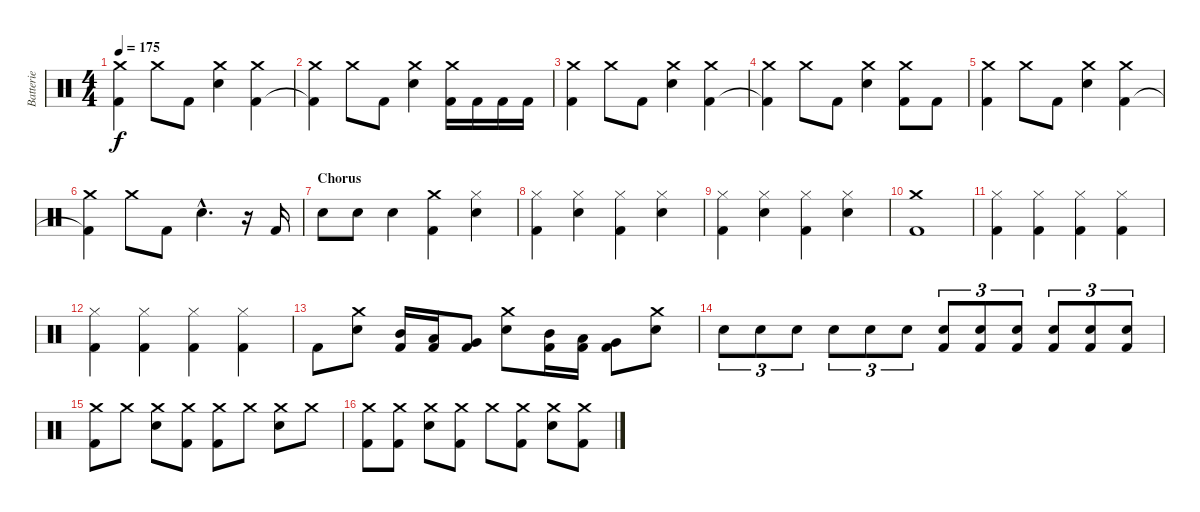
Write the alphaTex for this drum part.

\track ("Batterie" "Batterie") {instrument percussion}
\staff {score}
\articulation defaults
\ts (4 4)
\tempo 175
\clef neutral
\ks c
("Crash medium (hit)" "Kick (hit) 2").4{dy f} "Crash medium (hit)".8 "Kick (hit) 2".8 ("Crash medium (hit)" "Electric Snare (hit)").4 ("Crash medium (hit)" "Kick (hit) 2").4 |
("Crash medium (hit)" "Kick (hit) 2"{t}).4 "Crash medium (hit)".8 "Kick (hit) 2".8 ("Crash medium (hit)" "Electric Snare (hit)").4 ("Crash medium (hit)" "Kick (hit) 2").16 "Kick (hit) 2".16 "Kick (hit) 2".16 "Kick (hit) 2".16 |
("Crash medium (hit)" "Kick (hit) 2").4 "Crash medium (hit)".8 "Kick (hit) 2".8 ("Crash medium (hit)" "Electric Snare (hit)").4 ("Crash medium (hit)" "Kick (hit) 2").4 |
("Crash medium (hit)" "Kick (hit) 2"{t}).4 "Crash medium (hit)".8 "Kick (hit) 2".8 ("Crash medium (hit)" "Electric Snare (hit)").4 ("Crash medium (hit)" "Kick (hit) 2").8 "Kick (hit) 2".8 |
("Crash medium (hit)" "Kick (hit) 2").4 "Crash medium (hit)".8 "Kick (hit) 2".8 ("Crash medium (hit)" "Electric Snare (hit)").4 ("Crash medium (hit)" "Kick (hit) 2").4 |
("Crash medium (hit)" "Kick (hit) 2"{t}).4 "Crash medium (hit)".8 "Kick (hit) 2".8 "Electric Snare (hit)"{hac}.4{d} r.16 "Kick (hit) 2".16 |
\section ("" "Chorus")
"Electric Snare (hit)".8 "Electric Snare (hit)".8 "Electric Snare (hit)".4 ("Crash medium (hit)" "Kick (hit) 2").4 ("Hi-Hat (closed)" "Electric Snare (hit)").4 |
("Hi-Hat (closed)" "Kick (hit) 2").4 ("Hi-Hat (closed)" "Electric Snare (hit)").4 ("Hi-Hat (closed)" "Kick (hit) 2").4 ("Hi-Hat (closed)" "Electric Snare (hit)").4 |
("Hi-Hat (closed)" "Kick (hit) 2").4 ("Hi-Hat (closed)" "Electric Snare (hit)").4 ("Hi-Hat (closed)" "Kick (hit) 2").4 ("Hi-Hat (closed)" "Electric Snare (hit)").4 |
("Crash medium (hit)" "Kick (hit) 2").1 |
("Hi-Hat (closed)" "Kick (hit) 2").4 ("Hi-Hat (closed)" "Kick (hit) 2").4 ("Hi-Hat (closed)" "Kick (hit) 2").4 ("Hi-Hat (closed)" "Kick (hit) 2").4 |
("Hi-Hat (closed)" "Kick (hit) 2").4 ("Hi-Hat (closed)" "Kick (hit) 2").4 ("Hi-Hat (closed)" "Kick (hit) 2").4 ("Hi-Hat (closed)" "Kick (hit) 2").4 |
"Kick (hit) 2".8 ("Crash medium (hit)" "Electric Snare (hit)").8 ("Mid Tom (hit)" "Kick (hit) 2").16 ("Low Tom (hit)" "Kick (hit) 2").16 ("Very Low Tom (hit)" "Kick (hit) 2").8 ("Crash medium (hit)" "Electric Snare (hit)").8 ("Mid Tom (hit)" "Kick (hit) 2").16 ("Low Tom (hit)" "Kick (hit) 2").16 ("Very Low Tom (hit)" "Kick (hit) 2").8 ("Crash medium (hit)" "Electric Snare (hit)").8 |
"Electric Snare (hit)".8{tu (3 2)} "Electric Snare (hit)".8{tu (3 2)} "Electric Snare (hit)".8{tu (3 2)} "Electric Snare (hit)".8{tu (3 2)} "Electric Snare (hit)".8{tu (3 2)} "Electric Snare (hit)".8{tu (3 2)} ("Electric Snare (hit)" "Kick (hit) 2").8{tu (3 2)} ("Electric Snare (hit)" "Kick (hit) 2").8{tu (3 2)} ("Electric Snare (hit)" "Kick (hit) 2").8{tu (3 2)} ("Electric Snare (hit)" "Kick (hit) 2").8{tu (3 2)} ("Electric Snare (hit)" "Kick (hit) 2").8{tu (3 2)} ("Electric Snare (hit)" "Kick (hit) 2").8{tu (3 2)} |
("Crash medium (hit)" "Kick (hit) 2").8 "Crash medium (hit)".8 ("Crash medium (hit)" "Electric Snare (hit)").8 ("Crash medium (hit)" "Kick (hit) 2").8 ("Crash medium (hit)" "Kick (hit) 2").8 "Crash medium (hit)".8 ("Crash medium (hit)" "Electric Snare (hit)").8 "Crash medium (hit)".8 |
("Crash medium (hit)" "Kick (hit) 2").8 ("Crash medium (hit)" "Kick (hit) 2").8 ("Crash medium (hit)" "Electric Snare (hit)").8 ("Crash medium (hit)" "Kick (hit) 2").8 "Crash medium (hit)".8 ("Crash medium (hit)" "Kick (hit) 2").8 ("Crash medium (hit)" "Electric Snare (hit)").8 ("Crash medium (hit)" "Kick (hit) 2").8
